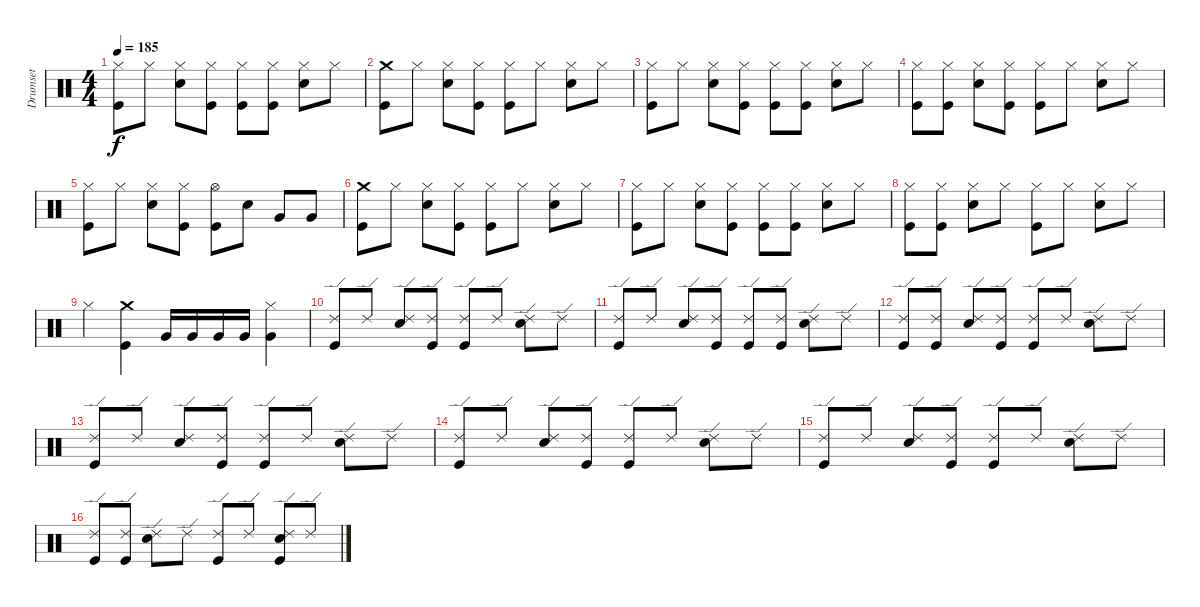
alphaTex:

\track ("Drumset" "Drumset") {instrument percussion}
\staff {score}
\articulation defaults
\ts (4 4)
\tempo 185
\clef neutral
\ks c
("Hi-Hat (closed)" "Kick (hit)").8{dy f} "Hi-Hat (closed)".8 ("Hi-Hat (closed)" "Snare (hit) 2").8 ("Hi-Hat (closed)" "Kick (hit)").8 ("Hi-Hat (closed)" "Kick (hit)").8 ("Hi-Hat (closed)" "Kick (hit)").8 ("Hi-Hat (closed)" "Snare (hit) 2").8 "Hi-Hat (closed)".8 |
("Crash medium (hit)" "Kick (hit)").8 "Hi-Hat (closed)".8 ("Hi-Hat (closed)" "Snare (hit) 2").8 ("Hi-Hat (closed)" "Kick (hit)").8 ("Hi-Hat (closed)" "Kick (hit)").8 "Hi-Hat (closed)".8 ("Hi-Hat (closed)" "Snare (hit) 2").8 "Hi-Hat (closed)".8 |
("Hi-Hat (closed)" "Kick (hit)").8 "Hi-Hat (closed)".8 ("Hi-Hat (closed)" "Snare (hit) 2").8 ("Hi-Hat (closed)" "Kick (hit)").8 ("Hi-Hat (closed)" "Kick (hit)").8 ("Hi-Hat (closed)" "Kick (hit)").8 ("Hi-Hat (closed)" "Snare (hit) 2").8 "Hi-Hat (closed)".8 |
("Hi-Hat (closed)" "Kick (hit)").8 ("Hi-Hat (closed)" "Kick (hit)").8 ("Hi-Hat (closed)" "Snare (hit) 2").8 ("Hi-Hat (closed)" "Kick (hit)").8 ("Hi-Hat (closed)" "Kick (hit)").8 "Hi-Hat (closed)".8 ("Hi-Hat (closed)" "Snare (hit) 2").8 "Hi-Hat (closed)".8 |
("Hi-Hat (closed)" "Kick (hit)").8 "Hi-Hat (closed)".8 ("Hi-Hat (closed)" "Snare (hit) 2").8 ("Hi-Hat (closed)" "Kick (hit)").8 ("Hi-Hat (open)" "Kick (hit)").8 "Snare (hit) 2".8 "Very Low Tom (hit)".8 "Very Low Tom (hit)".8 |
("Crash medium (hit)" "Kick (hit)").8 "Hi-Hat (closed)".8 ("Hi-Hat (closed)" "Snare (hit) 2").8 ("Hi-Hat (closed)" "Kick (hit)").8 ("Hi-Hat (closed)" "Kick (hit)").8 "Hi-Hat (closed)".8 ("Hi-Hat (closed)" "Snare (hit) 2").8 "Hi-Hat (closed)".8 |
("Hi-Hat (closed)" "Kick (hit)").8 "Hi-Hat (closed)".8 ("Hi-Hat (closed)" "Snare (hit) 2").8 ("Hi-Hat (closed)" "Kick (hit)").8 ("Hi-Hat (closed)" "Kick (hit)").8 ("Hi-Hat (closed)" "Kick (hit)").8 ("Hi-Hat (closed)" "Snare (hit) 2").8 "Hi-Hat (closed)".8 |
("Hi-Hat (closed)" "Kick (hit)").8 ("Hi-Hat (closed)" "Kick (hit)").8 ("Hi-Hat (closed)" "Snare (hit) 2").8 "Hi-Hat (closed)".8 ("Hi-Hat (closed)" "Kick (hit)").8 "Hi-Hat (closed)".8 ("Hi-Hat (closed)" "Snare (hit) 2").8 "Hi-Hat (closed)".8 |
"Hi-Hat (closed)".4 ("Crash medium (hit)" "Kick (hit)").4 "Very Low Tom (hit)".16 "Very Low Tom (hit)".16 "Very Low Tom (hit)".16 "Very Low Tom (hit)".16 ("Hi-Hat (closed)" "Very Low Tom (hit)").4 |
("Ride (edge) 2" "Kick (hit)").8 "Ride (edge) 2".8 ("Ride (edge) 2" "Snare (hit) 2").8 ("Ride (edge) 2" "Kick (hit)").8 ("Ride (edge) 2" "Kick (hit)").8 "Ride (edge) 2".8 ("Ride (edge) 2" "Snare (hit) 2").8 "Ride (edge) 2".8 |
("Ride (edge) 2" "Kick (hit)").8 "Ride (edge) 2".8 ("Ride (edge) 2" "Snare (hit) 2").8 ("Ride (edge) 2" "Kick (hit)").8 ("Ride (edge) 2" "Kick (hit)").8 ("Ride (edge) 2" "Kick (hit)").8 ("Ride (edge) 2" "Snare (hit) 2").8 "Ride (edge) 2".8 |
("Ride (edge) 2" "Kick (hit)").8 ("Ride (edge) 2" "Kick (hit)").8 ("Ride (edge) 2" "Snare (hit) 2").8 ("Ride (edge) 2" "Kick (hit)").8 ("Ride (edge) 2" "Kick (hit)").8 "Ride (edge) 2".8 ("Ride (edge) 2" "Snare (hit) 2").8 "Ride (edge) 2".8 |
("Ride (edge) 2" "Kick (hit)").8 "Ride (edge) 2".8 ("Ride (edge) 2" "Snare (hit) 2").8 ("Ride (edge) 2" "Kick (hit)").8 ("Ride (edge) 2" "Kick (hit)").8 "Ride (edge) 2".8 ("Ride (edge) 2" "Snare (hit) 2").8 "Ride (edge) 2".8 |
("Ride (edge) 2" "Kick (hit)").8 "Ride (edge) 2".8 ("Ride (edge) 2" "Snare (hit) 2").8 ("Ride (edge) 2" "Kick (hit)").8 ("Ride (edge) 2" "Kick (hit)").8 "Ride (edge) 2".8 ("Ride (edge) 2" "Snare (hit) 2").8 "Ride (edge) 2".8 |
("Ride (edge) 2" "Kick (hit)").8 "Ride (edge) 2".8 ("Ride (edge) 2" "Snare (hit) 2").8 ("Ride (edge) 2" "Kick (hit)").8 ("Ride (edge) 2" "Kick (hit)").8 "Ride (edge) 2".8 ("Ride (edge) 2" "Snare (hit) 2").8 "Ride (edge) 2".8 |
("Ride (edge) 2" "Kick (hit)").8 ("Ride (edge) 2" "Kick (hit)").8 ("Ride (edge) 2" "Snare (hit) 2").8 "Ride (edge) 2".8 ("Ride (edge) 2" "Kick (hit)").8 "Ride (edge) 2".8 ("Ride (edge) 2" "Snare (hit) 2" "Kick (hit)").8 "Ride (edge) 2".8
